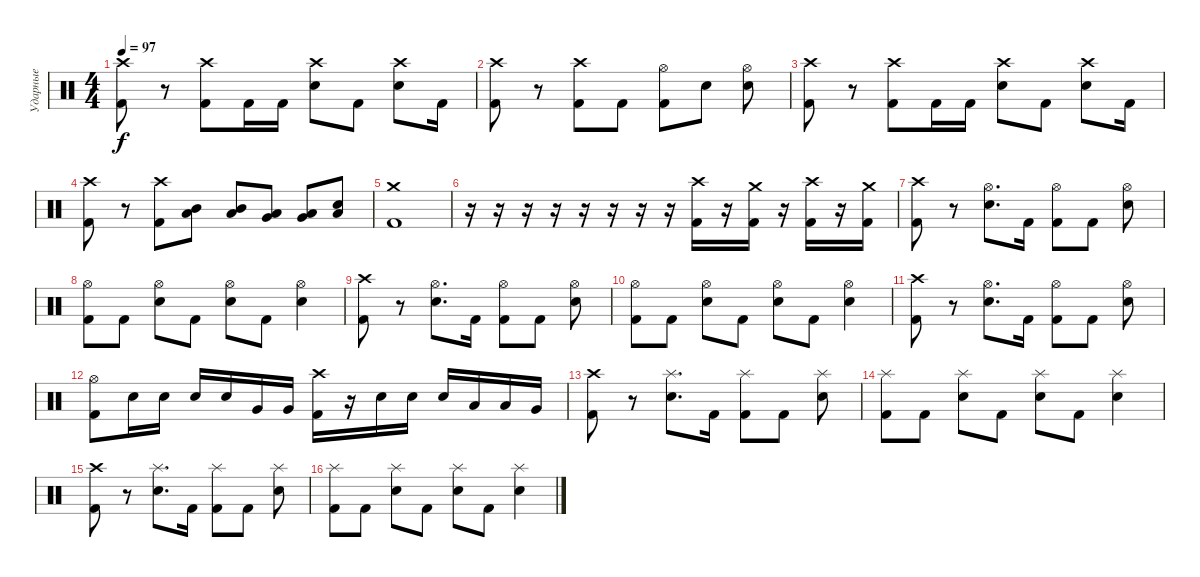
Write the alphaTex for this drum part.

\track ("Ударные" "Ударные") {instrument percussion}
\staff {score}
\articulation defaults
\ts (4 4)
\tempo 97
\clef neutral
\ks c
("Kick (hit) 2" "Crash high (hit)").8{dy f} r.8 ("Kick (hit) 2" "Crash high (hit)").8 "Kick (hit) 2".16 "Kick (hit) 2".16 ("Electric Snare (hit)" "Crash high (hit)").8 "Kick (hit) 2".8 ("Electric Snare (hit)" "Crash high (hit)").8 "Kick (hit) 2".16 |
("Kick (hit) 2" "Crash high (hit)").8 r.8 ("Kick (hit) 2" "Crash high (hit)").8 "Kick (hit) 2".8 ("Kick (hit) 2" "Hi-Hat (open)").8 "Electric Snare (hit)".8 ("Electric Snare (hit)" "Hi-Hat (open)").8 |
("Kick (hit) 2" "Crash high (hit)").8 r.8 ("Kick (hit) 2" "Crash high (hit)").8 "Kick (hit) 2".16 "Kick (hit) 2".16 ("Electric Snare (hit)" "Crash high (hit)").8 "Kick (hit) 2".8 ("Electric Snare (hit)" "Crash high (hit)").8 "Kick (hit) 2".16 |
("Kick (hit) 2" "Crash high (hit)").8 r.8 ("Kick (hit) 2" "Crash high (hit)").8 ("Mid Tom (hit)" "Low Tom (hit)").8 ("Mid Tom (hit)" "Low Tom (hit)").8 ("Very Low Tom (hit)" "Low Tom (hit)").8 ("Very Low Tom (hit)" "Low Tom (hit)").8 ("Electric Snare (hit)" "Low Tom (hit)").8 |
("Crash medium (hit)" "Kick (hit) 2").1 |
r.16 r.16 r.16 r.16 r.16 r.16 r.16 r.16 ("Crash high (hit)" "Kick (hit) 2").16 r.16 ("Crash medium (hit)" "Kick (hit) 2").16 r.16 ("Crash high (hit)" "Kick (hit) 2").16 r.16 ("Crash medium (hit)" "Kick (hit) 2").16 |
("Kick (hit) 2" "Crash high (hit)").8 r.8 ("Electric Snare (hit)" "Hi-Hat (open)").8{d} "Kick (hit) 2".16 ("Kick (hit) 2" "Hi-Hat (open)").8 "Kick (hit) 2".8 ("Electric Snare (hit)" "Hi-Hat (open)").8 |
("Kick (hit) 2" "Hi-Hat (open)").8 "Kick (hit) 2".8 ("Electric Snare (hit)" "Hi-Hat (open)").8 "Kick (hit) 2".8 ("Electric Snare (hit)" "Hi-Hat (open)").8 "Kick (hit) 2".8 ("Electric Snare (hit)" "Hi-Hat (open)").4 |
("Kick (hit) 2" "Crash high (hit)").8 r.8 ("Electric Snare (hit)" "Hi-Hat (open)").8{d} "Kick (hit) 2".16 ("Kick (hit) 2" "Hi-Hat (open)").8 "Kick (hit) 2".8 ("Electric Snare (hit)" "Hi-Hat (open)").8 |
("Kick (hit) 2" "Hi-Hat (open)").8 "Kick (hit) 2".8 ("Electric Snare (hit)" "Hi-Hat (open)").8 "Kick (hit) 2".8 ("Electric Snare (hit)" "Hi-Hat (open)").8 "Kick (hit) 2".8 ("Electric Snare (hit)" "Hi-Hat (open)").4 |
("Kick (hit) 2" "Crash high (hit)").8 r.8 ("Electric Snare (hit)" "Hi-Hat (open)").8{d} "Kick (hit) 2".16 ("Kick (hit) 2" "Hi-Hat (open)").8 "Kick (hit) 2".8 ("Electric Snare (hit)" "Hi-Hat (open)").8 |
("Kick (hit) 2" "Hi-Hat (open)").8 "Electric Snare (hit)".16 "Electric Snare (hit)".16 "Electric Snare (hit)".16 "Electric Snare (hit)".16 "Very Low Tom (hit)".16 "Very Low Tom (hit)".16 ("Kick (hit) 2" "Crash high (hit)").16 r.16 "Electric Snare (hit)".16 "Electric Snare (hit)".16 "Electric Snare (hit)".16 "Low Tom (hit)".16 "Low Tom (hit)".16 "Very Low Tom (hit)".16 |
("Kick (hit) 2" "Crash high (hit)").8 r.8 ("Electric Snare (hit)" "Splash (hit)").8{d} "Kick (hit) 2".16 ("Kick (hit) 2" "Splash (hit)").8 "Kick (hit) 2".8 ("Electric Snare (hit)" "Splash (hit)").8 |
("Kick (hit) 2" "Splash (hit)").8 "Kick (hit) 2".8 ("Electric Snare (hit)" "Splash (hit)").8 "Kick (hit) 2".8 ("Electric Snare (hit)" "Splash (hit)").8 "Kick (hit) 2".8 ("Electric Snare (hit)" "Splash (hit)").4 |
("Kick (hit) 2" "Crash high (hit)").8 r.8 ("Electric Snare (hit)" "Splash (hit)").8{d} "Kick (hit) 2".16 ("Kick (hit) 2" "Splash (hit)").8 "Kick (hit) 2".8 ("Electric Snare (hit)" "Splash (hit)").8 |
("Kick (hit) 2" "Splash (hit)").8 "Kick (hit) 2".8 ("Electric Snare (hit)" "Splash (hit)").8 "Kick (hit) 2".8 ("Electric Snare (hit)" "Splash (hit)").8 "Kick (hit) 2".8 ("Electric Snare (hit)" "Splash (hit)").4
